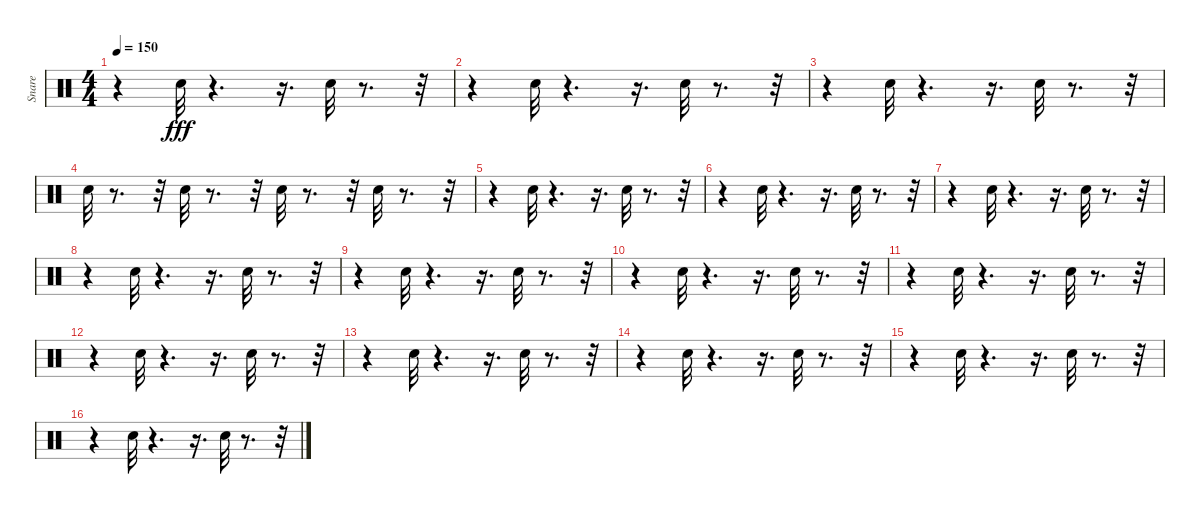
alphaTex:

\track ("Snare" "Snare") {instrument percussion}
\staff {score}
\articulation defaults
\ts (4 4)
\tempo 150
\clef neutral
\ks c
r.4{dy fff} "Electric Snare (hit)".32 r.4{d} r.16{d} "Electric Snare (hit)".32 r.8{d} r.32 |
r.4 "Electric Snare (hit)".32 r.4{d} r.16{d} "Electric Snare (hit)".32 r.8{d} r.32 |
r.4 "Electric Snare (hit)".32 r.4{d} r.16{d} "Electric Snare (hit)".32 r.8{d} r.32 |
"Electric Snare (hit)".32 r.8{d} r.32 "Electric Snare (hit)".32 r.8{d} r.32 "Electric Snare (hit)".32 r.8{d} r.32 "Electric Snare (hit)".32 r.8{d} r.32 |
r.4 "Electric Snare (hit)".32 r.4{d} r.16{d} "Electric Snare (hit)".32 r.8{d} r.32 |
r.4 "Electric Snare (hit)".32 r.4{d} r.16{d} "Electric Snare (hit)".32 r.8{d} r.32 |
r.4 "Electric Snare (hit)".32 r.4{d} r.16{d} "Electric Snare (hit)".32 r.8{d} r.32 |
r.4 "Electric Snare (hit)".32 r.4{d} r.16{d} "Electric Snare (hit)".32 r.8{d} r.32 |
r.4 "Electric Snare (hit)".32 r.4{d} r.16{d} "Electric Snare (hit)".32 r.8{d} r.32 |
r.4 "Electric Snare (hit)".32 r.4{d} r.16{d} "Electric Snare (hit)".32 r.8{d} r.32 |
r.4 "Electric Snare (hit)".32 r.4{d} r.16{d} "Electric Snare (hit)".32 r.8{d} r.32 |
r.4 "Electric Snare (hit)".32 r.4{d} r.16{d} "Electric Snare (hit)".32 r.8{d} r.32 |
r.4 "Electric Snare (hit)".32 r.4{d} r.16{d} "Electric Snare (hit)".32 r.8{d} r.32 |
r.4 "Electric Snare (hit)".32 r.4{d} r.16{d} "Electric Snare (hit)".32 r.8{d} r.32 |
r.4 "Electric Snare (hit)".32 r.4{d} r.16{d} "Electric Snare (hit)".32 r.8{d} r.32 |
r.4 "Electric Snare (hit)".32 r.4{d} r.16{d} "Electric Snare (hit)".32 r.8{d} r.32
